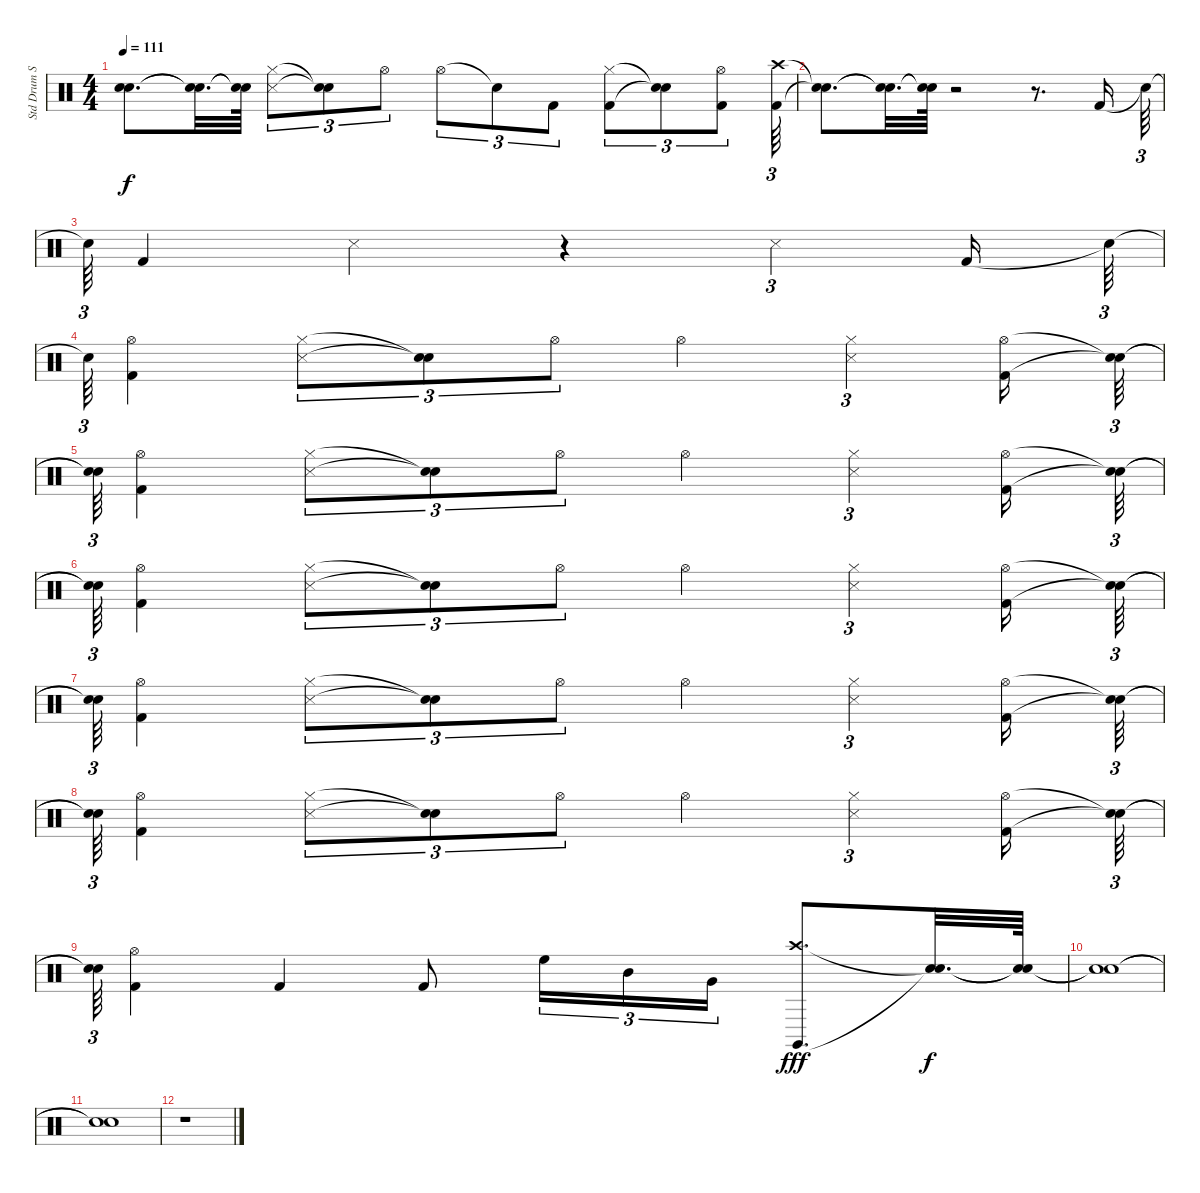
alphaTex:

\track ("Std Drum Set" "Std Drum S") {solo instrument percussion}
\staff {score}
\articulation defaults
\ts (4 4)
\tempo 111
\clef neutral
\ks c
("Snare (hit)"{t} "Snare (hit)"{t}).8{d dy f} ("Snare (hit)"{t} "Snare (hit)"{t}).32{d} ("Snare (hit)"{t} "Snare (hit)"{t}).64 ("Snare (side stick) 3" "Hi-Hat (closed)").8{tu (3 2)} ("Snare (hit)"{t} "Snare (hit)"{t}).8{tu (3 2)} "Hi-Hat (open)".8{tu (3 2)} "Hi-Hat (open)".8{tu (3 2)} "Snare (hit)"{t}.8{tu (3 2)} "Kick (hit) 2".8{tu (3 2)} ("Kick (hit) 2" "Hi-Hat (closed)").8{tu (3 2)} ("Snare (hit)"{t} "Snare (hit)"{t}).8{tu (3 2)} ("Kick (hit) 2" "Hi-Hat (open)").8{tu (3 2)} ("Kick (hit) 2" "Crash high (hit)").64{tu (3 2)} |
("Snare (hit)"{t} "Snare (hit)"{t}).8{d} ("Snare (hit)"{t} "Snare (hit)"{t}).32{d} ("Snare (hit)"{t} "Snare (hit)"{t}).64 r.2 r.8{d} "Kick (hit) 2".16 "Snare (hit)"{t}.64{tu (3 2)} |
"Snare (hit)"{t}.64{tu (3 2)} "Kick (hit) 2".4 "Snare (side stick) 3".4 r.4 "Snare (side stick) 3".4{tu (3 2)} "Kick (hit) 2".16 "Snare (hit)"{t}.64{tu (3 2)} |
"Snare (hit)"{t}.64{tu (3 2)} ("Kick (hit) 2" "Hi-Hat (open)").4 ("Snare (side stick) 3" "Hi-Hat (closed)").8{tu (3 2)} ("Snare (hit)"{t} "Snare (hit)"{t}).8{tu (3 2)} "Hi-Hat (open)".8{tu (3 2)} "Hi-Hat (open)".4 ("Snare (side stick) 3" "Hi-Hat (closed)").4{tu (3 2)} ("Kick (hit) 2" "Hi-Hat (open)").16 ("Snare (hit)"{t} "Snare (hit)"{t}).64{tu (3 2)} |
("Snare (hit)"{t} "Snare (hit)"{t}).64{tu (3 2)} ("Kick (hit) 2" "Hi-Hat (open)").4 ("Snare (side stick) 3" "Hi-Hat (closed)").8{tu (3 2)} ("Snare (hit)"{t} "Snare (hit)"{t}).8{tu (3 2)} "Hi-Hat (open)".8{tu (3 2)} "Hi-Hat (open)".4 ("Snare (side stick) 3" "Hi-Hat (closed)").4{tu (3 2)} ("Kick (hit) 2" "Hi-Hat (open)").16 ("Snare (hit)"{t} "Snare (hit)"{t}).64{tu (3 2)} |
("Snare (hit)"{t} "Snare (hit)"{t}).64{tu (3 2)} ("Kick (hit) 2" "Hi-Hat (open)").4 ("Snare (side stick) 3" "Hi-Hat (closed)").8{tu (3 2)} ("Snare (hit)"{t} "Snare (hit)"{t}).8{tu (3 2)} "Hi-Hat (open)".8{tu (3 2)} "Hi-Hat (open)".4 ("Snare (side stick) 3" "Hi-Hat (closed)").4{tu (3 2)} ("Kick (hit) 2" "Hi-Hat (open)").16 ("Snare (hit)"{t} "Snare (hit)"{t}).64{tu (3 2)} |
("Snare (hit)"{t} "Snare (hit)"{t}).64{tu (3 2)} ("Kick (hit) 2" "Hi-Hat (open)").4 ("Snare (side stick) 3" "Hi-Hat (closed)").8{tu (3 2)} ("Snare (hit)"{t} "Snare (hit)"{t}).8{tu (3 2)} "Hi-Hat (open)".8{tu (3 2)} "Hi-Hat (open)".4 ("Snare (side stick) 3" "Hi-Hat (closed)").4{tu (3 2)} ("Kick (hit) 2" "Hi-Hat (open)").16 ("Snare (hit)"{t} "Snare (hit)"{t}).64{tu (3 2)} |
("Snare (hit)"{t} "Snare (hit)"{t}).64{tu (3 2)} ("Kick (hit) 2" "Hi-Hat (open)").4 ("Snare (side stick) 3" "Hi-Hat (closed)").8{tu (3 2)} ("Snare (hit)"{t} "Snare (hit)"{t}).8{tu (3 2)} "Hi-Hat (open)".8{tu (3 2)} "Hi-Hat (open)".4 ("Snare (side stick) 3" "Hi-Hat (closed)").4{tu (3 2)} ("Kick (hit) 2" "Hi-Hat (open)").16 ("Snare (hit)"{t} "Snare (hit)"{t}).64{tu (3 2)} |
("Snare (hit)"{t} "Snare (hit)"{t}).64{tu (3 2)} ("Kick (hit) 2" "Hi-Hat (open)").4 "Kick (hit) 2".4 "Kick (hit) 2".8 "High Floor Tom (hit)".16{tu (3 2)} "Mid Tom (hit)".16{tu (3 2)} "Very Low Tom (hit)".16{tu (3 2)} ("Claves (hit)" "Crash high (hit)").8{d dy fff} ("Snare (hit)"{t} "Snare (hit)"{t}).32{d dy f} ("Snare (hit)"{t} "Snare (hit)"{t}).64 |
("Snare (hit)"{t} "Snare (hit)"{t}).1 |
("Snare (hit)"{t} "Snare (hit)"{t}).1 |
r.1
